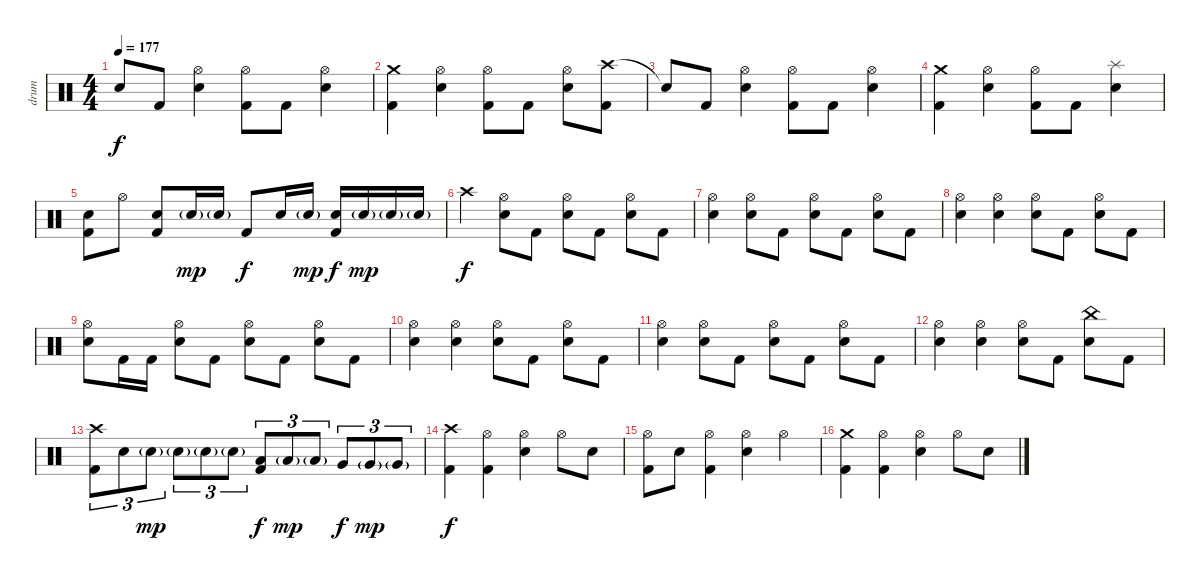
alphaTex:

\track ("drum" "drum") {instrument percussion}
\staff {score}
\articulation defaults
\ts (4 4)
\tempo 177
\clef neutral
\ks c "Snare (hit)"{t}.8{dy f} "Kick (hit) 2".8
("Hi-Hat (open)" "Electric Snare (hit)").4 ("Hi-Hat (open)" "Kick (hit) 2").8 "Kick (hit) 2".8 ("Hi-Hat (open)" "Electric Snare (hit)").4 |
("Crash medium (hit)" "Kick (hit) 2").4 ("Hi-Hat (open)" "Electric Snare (hit)").4 ("Hi-Hat (open)" "Kick (hit) 2").8 "Kick (hit) 2".8 ("Hi-Hat (open)" "Electric Snare (hit)").8 ("Crash high (hit)" "Kick (hit) 2").8 |
"Snare (hit)"{t}.8 "Kick (hit) 2".8 ("Hi-Hat (open)" "Electric Snare (hit)").4 ("Hi-Hat (open)" "Kick (hit) 2").8 "Kick (hit) 2".8 ("Hi-Hat (open)" "Electric Snare (hit)").4 |
("Crash medium (hit)" "Kick (hit) 2").4 ("Hi-Hat (open)" "Electric Snare (hit)").4 ("Hi-Hat (open)" "Kick (hit) 2").8 "Kick (hit) 2".8 ("Splash (hit)" "Electric Snare (hit)").4 |
("Electric Snare (hit)" "Kick (hit) 2").8 "Hi-Hat (open)".8 ("Electric Snare (hit)" "Kick (hit) 2").8 "Electric Snare (hit)"{g}.16{dy mp} "Electric Snare (hit)"{g}.16 "Kick (hit) 2".8{dy f} "Electric Snare (hit)".16 "Electric Snare (hit)"{g}.16{dy mp} ("Electric Snare (hit)" "Kick (hit) 2").16{dy f} "Electric Snare (hit)"{g}.16{dy mp} "Electric Snare (hit)"{g}.16 "Electric Snare (hit)"{g}.16 |
\section ("" "")
"Crash high (hit)".4{dy f} ("Hi-Hat (open)" "Electric Snare (hit)").8 "Kick (hit) 2".8 ("Hi-Hat (open)" "Electric Snare (hit)").8 "Kick (hit) 2".8 ("Hi-Hat (open)" "Electric Snare (hit)").8 "Kick (hit) 2".8 |
("Hi-Hat (open)" "Electric Snare (hit)").4 ("Hi-Hat (open)" "Electric Snare (hit)").8 "Kick (hit) 2".8 ("Hi-Hat (open)" "Electric Snare (hit)").8 "Kick (hit) 2".8 ("Hi-Hat (open)" "Electric Snare (hit)").8 "Kick (hit) 2".8 |
("Hi-Hat (open)" "Electric Snare (hit)").4 ("Hi-Hat (open)" "Electric Snare (hit)").4 ("Hi-Hat (open)" "Electric Snare (hit)").8 "Kick (hit) 2".8 ("Hi-Hat (open)" "Electric Snare (hit)").8 "Kick (hit) 2".8 |
("Hi-Hat (open)" "Electric Snare (hit)").8 "Kick (hit) 2".16 "Kick (hit) 2".16 ("Hi-Hat (open)" "Electric Snare (hit)").8 "Kick (hit) 2".8 ("Hi-Hat (open)" "Electric Snare (hit)").8 "Kick (hit) 2".8 ("Hi-Hat (open)" "Electric Snare (hit)").8 "Kick (hit) 2".8 |
("Hi-Hat (open)" "Electric Snare (hit)").4 ("Hi-Hat (open)" "Electric Snare (hit)").4 ("Hi-Hat (open)" "Electric Snare (hit)").8 "Kick (hit) 2".8 ("Hi-Hat (open)" "Electric Snare (hit)").8 "Kick (hit) 2".8 |
("Hi-Hat (open)" "Electric Snare (hit)").4 ("Hi-Hat (open)" "Electric Snare (hit)").8 "Kick (hit) 2".8 ("Hi-Hat (open)" "Electric Snare (hit)").8 "Kick (hit) 2".8 ("Hi-Hat (open)" "Electric Snare (hit)").8 "Kick (hit) 2".8 |
("Hi-Hat (open)" "Electric Snare (hit)").4 ("Hi-Hat (open)" "Electric Snare (hit)").4 ("Hi-Hat (open)" "Electric Snare (hit)").8 "Kick (hit) 2".8 ("China (hit)" "Electric Snare (hit)").8 "Kick (hit) 2".8 |
("Crash high (hit)" "Kick (hit) 2").8{tu (3 2)} "Electric Snare (hit)".8{tu (3 2)} "Electric Snare (hit)"{g}.8{tu (3 2) dy mp} "Electric Snare (hit)"{g}.8{tu (3 2)} "Electric Snare (hit)"{g}.8{tu (3 2)} "Electric Snare (hit)"{g}.8{tu (3 2)} ("Low Tom (hit)" "Kick (hit) 2").8{tu (3 2) dy f} "Low Tom (hit)"{g}.8{tu (3 2) dy mp} "Low Tom (hit)"{g}.8{tu (3 2)} "Very Low Tom (hit)".8{tu (3 2) dy f} "Very Low Tom (hit)"{g}.8{tu (3 2) dy mp} "Very Low Tom (hit)"{g}.8{tu (3 2)} |
("Crash high (hit)" "Kick (hit) 2").4{dy f} ("Hi-Hat (open)" "Kick (hit) 2").4 ("Hi-Hat (open)" "Electric Snare (hit)").4 "Hi-Hat (open)".8 "Electric Snare (hit)".8 |
("Hi-Hat (open)" "Kick (hit) 2").8 "Electric Snare (hit)".8 ("Hi-Hat (open)" "Kick (hit) 2").4 ("Hi-Hat (open)" "Electric Snare (hit)").4 "Hi-Hat (open)".4 |
("Crash medium (hit)" "Kick (hit) 2").4 ("Hi-Hat (open)" "Kick (hit) 2").4 ("Hi-Hat (open)" "Electric Snare (hit)").4 "Hi-Hat (open)".8 "Electric Snare (hit)".8
